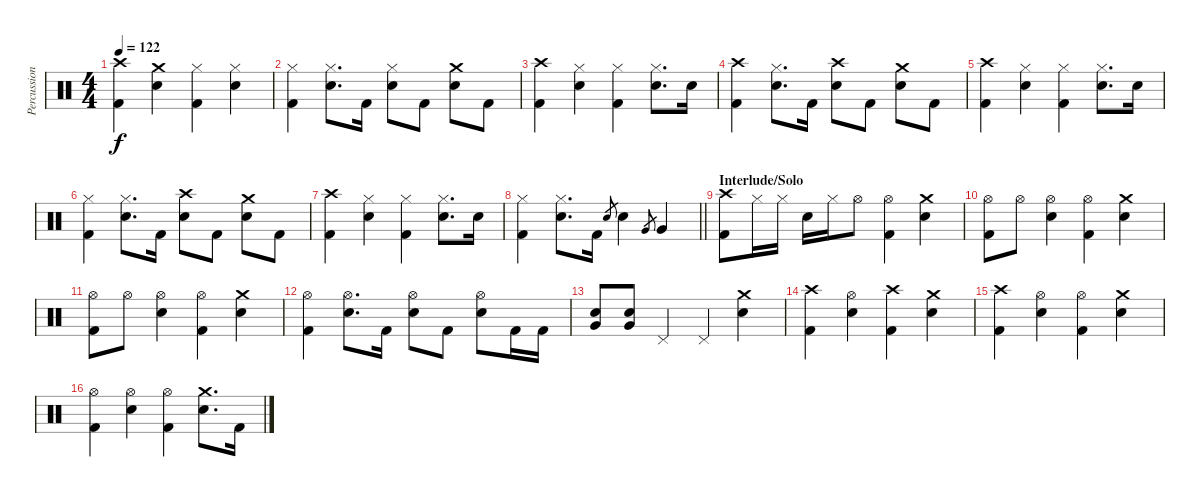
\track ("Percussion" "Percussion") {instrument percussion}
\staff {score}
\articulation defaults
\ts (4 4)
\tempo 122
\clef neutral
\ks c
("Crash high (hit)" "Kick (hit) 2").4{dy f} ("Crash medium (hit)" "Electric Snare (hit)").4 ("Hi-Hat (closed)" "Kick (hit) 2").4 ("Hi-Hat (closed)" "Electric Snare (hit)").4 |
("Hi-Hat (closed)" "Kick (hit) 2").4 ("Hi-Hat (closed)" "Electric Snare (hit)").8{d} "Kick (hit) 2".16 ("Hi-Hat (closed)" "Electric Snare (hit)").8 "Kick (hit) 2".8 ("Crash medium (hit)" "Electric Snare (hit)").8 "Kick (hit) 2".8 |
("Crash high (hit)" "Kick (hit) 2").4 ("Hi-Hat (closed)" "Electric Snare (hit)").4 ("Hi-Hat (closed)" "Kick (hit) 2").4 ("Hi-Hat (closed)" "Electric Snare (hit)").8{d} "Electric Snare (hit)".16 |
("Crash high (hit)" "Kick (hit) 2").4 ("Hi-Hat (closed)" "Electric Snare (hit)").8{d} "Kick (hit) 2".16 ("Crash high (hit)" "Electric Snare (hit)").8 "Kick (hit) 2".8 ("Crash medium (hit)" "Electric Snare (hit)").8 "Kick (hit) 2".8 |
("Crash high (hit)" "Kick (hit) 2").4 ("Hi-Hat (closed)" "Electric Snare (hit)").4 ("Hi-Hat (closed)" "Kick (hit) 2").4 ("Hi-Hat (closed)" "Electric Snare (hit)").8{d} "Electric Snare (hit)".16 |
("Hi-Hat (closed)" "Kick (hit) 2").4 ("Hi-Hat (closed)" "Electric Snare (hit)").8{d} "Kick (hit) 2".16 ("Crash high (hit)" "Electric Snare (hit)").8 "Kick (hit) 2".8 ("Crash medium (hit)" "Electric Snare (hit)").8 "Kick (hit) 2".8 |
("Crash high (hit)" "Kick (hit) 2").4 ("Hi-Hat (closed)" "Electric Snare (hit)").4 ("Hi-Hat (closed)" "Kick (hit) 2").4 ("Hi-Hat (closed)" "Electric Snare (hit)").8{d} "Electric Snare (hit)".16 |
\barLineRight lightlight
("Hi-Hat (closed)" "Kick (hit) 2").4 ("Hi-Hat (closed)" "Electric Snare (hit)").8{d} "Kick (hit) 2".16 "Electric Snare (hit)".8{gr} "Electric Snare (hit)".4 "Very Low Tom (hit)".8{gr} "Very Low Tom (hit)".4 |
\section ("" "Interlude/Solo")
("Crash high (hit)" "Kick (hit) 2").8 "Hi-Hat (closed)".16 "Hi-Hat (closed)".16 "Electric Snare (hit)".16 "Hi-Hat (closed)".16 "Hi-Hat (open)".8 ("Hi-Hat (open)" "Kick (hit) 2").4 ("Crash medium (hit)" "Electric Snare (hit)").4 |
("Hi-Hat (open)" "Kick (hit) 2").8 "Hi-Hat (open)".8 ("Hi-Hat (open)" "Electric Snare (hit)").4 ("Hi-Hat (open)" "Kick (hit) 2").4 ("Crash medium (hit)" "Electric Snare (hit)").4 |
("Hi-Hat (open)" "Kick (hit) 2").8 "Hi-Hat (open)".8 ("Hi-Hat (open)" "Electric Snare (hit)").4 ("Hi-Hat (open)" "Kick (hit) 2").4 ("Crash medium (hit)" "Electric Snare (hit)").4 |
("Hi-Hat (open)" "Kick (hit) 2").4 ("Hi-Hat (open)" "Electric Snare (hit)").8{d} "Kick (hit) 2".16 ("Hi-Hat (open)" "Electric Snare (hit)").8 "Kick (hit) 2".8 ("Hi-Hat (open)" "Electric Snare (hit)").8 "Kick (hit) 2".16 "Kick (hit) 2".16 |
("Very Low Tom (hit)" "Electric Snare (hit)").8 ("Very Low Tom (hit)" "Electric Snare (hit)").8 "Pedal Hi-Hat (hit)".4 "Pedal Hi-Hat (hit)".4 ("Crash medium (hit)" "Electric Snare (hit)").4 |
("Crash high (hit)" "Kick (hit) 2").4 ("Hi-Hat (open)" "Electric Snare (hit)").4 ("Crash high (hit)" "Kick (hit) 2").4 ("Crash medium (hit)" "Electric Snare (hit)").4 |
("Crash high (hit)" "Kick (hit) 2").4 ("Hi-Hat (open)" "Electric Snare (hit)").4 ("Hi-Hat (open)" "Kick (hit) 2").4 ("Crash medium (hit)" "Electric Snare (hit)").4 |
("Hi-Hat (open)" "Kick (hit) 2").4 ("Hi-Hat (open)" "Electric Snare (hit)").4 ("Hi-Hat (open)" "Kick (hit) 2").4 ("Crash medium (hit)" "Electric Snare (hit)").8{d} "Kick (hit) 2".16
